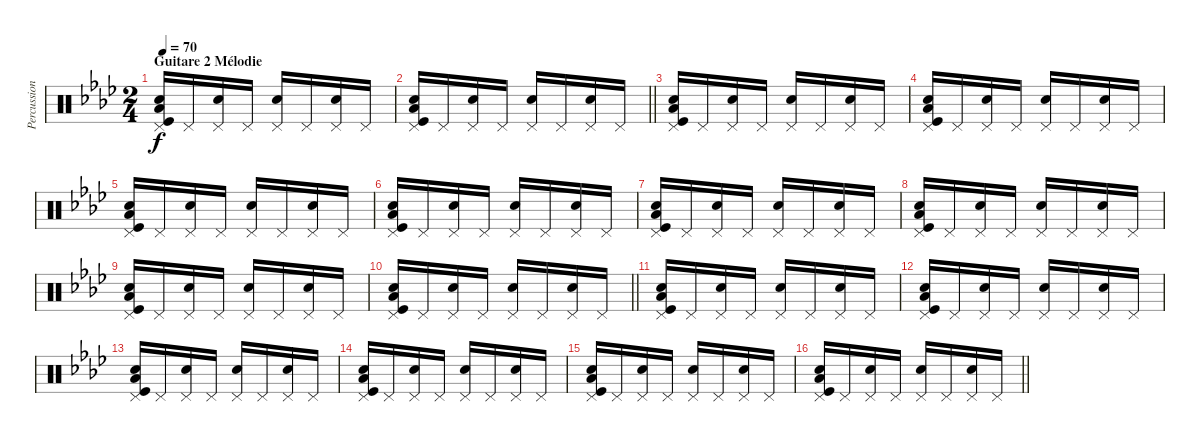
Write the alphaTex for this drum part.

\track ("Percussions" "Percussion") {instrument percussion}
\staff {score}
\articulation defaults
\ts (2 4)
\section ("" "Guitare 2 Mélodie")
\tempo 70
\clef neutral
\ks fminor
("Electric Snare (hit)" "Kick (hit)" "Pedal Hi-Hat (hit)" "Low Floor Tom (hit)").16{dy f} "Pedal Hi-Hat (hit)".16 ("Electric Snare (hit)" "Pedal Hi-Hat (hit)").16 "Pedal Hi-Hat (hit)".16 ("Electric Snare (hit)" "Pedal Hi-Hat (hit)").16 "Pedal Hi-Hat (hit)".16 ("Electric Snare (hit)" "Pedal Hi-Hat (hit)").16 "Pedal Hi-Hat (hit)".16 |
\barLineRight lightlight
("Electric Snare (hit)" "Kick (hit)" "Pedal Hi-Hat (hit)" "Low Floor Tom (hit)").16 "Pedal Hi-Hat (hit)".16 ("Electric Snare (hit)" "Pedal Hi-Hat (hit)").16 "Pedal Hi-Hat (hit)".16 ("Electric Snare (hit)" "Pedal Hi-Hat (hit)").16 "Pedal Hi-Hat (hit)".16 ("Electric Snare (hit)" "Pedal Hi-Hat (hit)").16 "Pedal Hi-Hat (hit)".16 |
("Electric Snare (hit)" "Kick (hit)" "Pedal Hi-Hat (hit)" "Low Floor Tom (hit)").16 "Pedal Hi-Hat (hit)".16 ("Electric Snare (hit)" "Pedal Hi-Hat (hit)").16 "Pedal Hi-Hat (hit)".16 ("Electric Snare (hit)" "Pedal Hi-Hat (hit)").16 "Pedal Hi-Hat (hit)".16 ("Electric Snare (hit)" "Pedal Hi-Hat (hit)").16 "Pedal Hi-Hat (hit)".16 |
("Electric Snare (hit)" "Kick (hit)" "Pedal Hi-Hat (hit)" "Low Floor Tom (hit)").16 "Pedal Hi-Hat (hit)".16 ("Electric Snare (hit)" "Pedal Hi-Hat (hit)").16 "Pedal Hi-Hat (hit)".16 ("Electric Snare (hit)" "Pedal Hi-Hat (hit)").16 "Pedal Hi-Hat (hit)".16 ("Electric Snare (hit)" "Pedal Hi-Hat (hit)").16 "Pedal Hi-Hat (hit)".16 |
("Electric Snare (hit)" "Kick (hit)" "Pedal Hi-Hat (hit)" "Low Floor Tom (hit)").16 "Pedal Hi-Hat (hit)".16 ("Electric Snare (hit)" "Pedal Hi-Hat (hit)").16 "Pedal Hi-Hat (hit)".16 ("Electric Snare (hit)" "Pedal Hi-Hat (hit)").16 "Pedal Hi-Hat (hit)".16 ("Electric Snare (hit)" "Pedal Hi-Hat (hit)").16 "Pedal Hi-Hat (hit)".16 |
("Electric Snare (hit)" "Kick (hit)" "Pedal Hi-Hat (hit)" "Low Floor Tom (hit)").16 "Pedal Hi-Hat (hit)".16 ("Electric Snare (hit)" "Pedal Hi-Hat (hit)").16 "Pedal Hi-Hat (hit)".16 ("Electric Snare (hit)" "Pedal Hi-Hat (hit)").16 "Pedal Hi-Hat (hit)".16 ("Electric Snare (hit)" "Pedal Hi-Hat (hit)").16 "Pedal Hi-Hat (hit)".16 |
("Electric Snare (hit)" "Kick (hit)" "Pedal Hi-Hat (hit)" "Low Floor Tom (hit)").16 "Pedal Hi-Hat (hit)".16 ("Electric Snare (hit)" "Pedal Hi-Hat (hit)").16 "Pedal Hi-Hat (hit)".16 ("Electric Snare (hit)" "Pedal Hi-Hat (hit)").16 "Pedal Hi-Hat (hit)".16 ("Electric Snare (hit)" "Pedal Hi-Hat (hit)").16 "Pedal Hi-Hat (hit)".16 |
("Electric Snare (hit)" "Kick (hit)" "Pedal Hi-Hat (hit)" "Low Floor Tom (hit)").16 "Pedal Hi-Hat (hit)".16 ("Electric Snare (hit)" "Pedal Hi-Hat (hit)").16 "Pedal Hi-Hat (hit)".16 ("Electric Snare (hit)" "Pedal Hi-Hat (hit)").16 "Pedal Hi-Hat (hit)".16 ("Electric Snare (hit)" "Pedal Hi-Hat (hit)").16 "Pedal Hi-Hat (hit)".16 |
("Electric Snare (hit)" "Kick (hit)" "Pedal Hi-Hat (hit)" "Low Floor Tom (hit)").16 "Pedal Hi-Hat (hit)".16 ("Electric Snare (hit)" "Pedal Hi-Hat (hit)").16 "Pedal Hi-Hat (hit)".16 ("Electric Snare (hit)" "Pedal Hi-Hat (hit)").16 "Pedal Hi-Hat (hit)".16 ("Electric Snare (hit)" "Pedal Hi-Hat (hit)").16 "Pedal Hi-Hat (hit)".16 |
\barLineRight lightlight
("Electric Snare (hit)" "Kick (hit)" "Pedal Hi-Hat (hit)" "Low Floor Tom (hit)").16 "Pedal Hi-Hat (hit)".16 ("Electric Snare (hit)" "Pedal Hi-Hat (hit)").16 "Pedal Hi-Hat (hit)".16 ("Electric Snare (hit)" "Pedal Hi-Hat (hit)").16 "Pedal Hi-Hat (hit)".16 ("Electric Snare (hit)" "Pedal Hi-Hat (hit)").16 "Pedal Hi-Hat (hit)".16 |
("Electric Snare (hit)" "Kick (hit)" "Pedal Hi-Hat (hit)" "Low Floor Tom (hit)").16 "Pedal Hi-Hat (hit)".16 ("Electric Snare (hit)" "Pedal Hi-Hat (hit)").16 "Pedal Hi-Hat (hit)".16 ("Electric Snare (hit)" "Pedal Hi-Hat (hit)").16 "Pedal Hi-Hat (hit)".16 ("Electric Snare (hit)" "Pedal Hi-Hat (hit)").16 "Pedal Hi-Hat (hit)".16 |
("Electric Snare (hit)" "Kick (hit)" "Pedal Hi-Hat (hit)" "Low Floor Tom (hit)").16 "Pedal Hi-Hat (hit)".16 ("Electric Snare (hit)" "Pedal Hi-Hat (hit)").16 "Pedal Hi-Hat (hit)".16 ("Electric Snare (hit)" "Pedal Hi-Hat (hit)").16 "Pedal Hi-Hat (hit)".16 ("Electric Snare (hit)" "Pedal Hi-Hat (hit)").16 "Pedal Hi-Hat (hit)".16 |
("Electric Snare (hit)" "Kick (hit)" "Pedal Hi-Hat (hit)" "Low Floor Tom (hit)").16 "Pedal Hi-Hat (hit)".16 ("Electric Snare (hit)" "Pedal Hi-Hat (hit)").16 "Pedal Hi-Hat (hit)".16 ("Electric Snare (hit)" "Pedal Hi-Hat (hit)").16 "Pedal Hi-Hat (hit)".16 ("Electric Snare (hit)" "Pedal Hi-Hat (hit)").16 "Pedal Hi-Hat (hit)".16 |
("Electric Snare (hit)" "Kick (hit)" "Pedal Hi-Hat (hit)" "Low Floor Tom (hit)").16 "Pedal Hi-Hat (hit)".16 ("Electric Snare (hit)" "Pedal Hi-Hat (hit)").16 "Pedal Hi-Hat (hit)".16 ("Electric Snare (hit)" "Pedal Hi-Hat (hit)").16 "Pedal Hi-Hat (hit)".16 ("Electric Snare (hit)" "Pedal Hi-Hat (hit)").16 "Pedal Hi-Hat (hit)".16 |
("Electric Snare (hit)" "Kick (hit)" "Pedal Hi-Hat (hit)" "Low Floor Tom (hit)").16 "Pedal Hi-Hat (hit)".16 ("Electric Snare (hit)" "Pedal Hi-Hat (hit)").16 "Pedal Hi-Hat (hit)".16 ("Electric Snare (hit)" "Pedal Hi-Hat (hit)").16 "Pedal Hi-Hat (hit)".16 ("Electric Snare (hit)" "Pedal Hi-Hat (hit)").16 "Pedal Hi-Hat (hit)".16 |
\barLineRight lightlight
("Electric Snare (hit)" "Kick (hit)" "Pedal Hi-Hat (hit)" "Low Floor Tom (hit)").16 "Pedal Hi-Hat (hit)".16 ("Electric Snare (hit)" "Pedal Hi-Hat (hit)").16 "Pedal Hi-Hat (hit)".16 ("Electric Snare (hit)" "Pedal Hi-Hat (hit)").16 "Pedal Hi-Hat (hit)".16 ("Electric Snare (hit)" "Pedal Hi-Hat (hit)").16 "Pedal Hi-Hat (hit)".16
